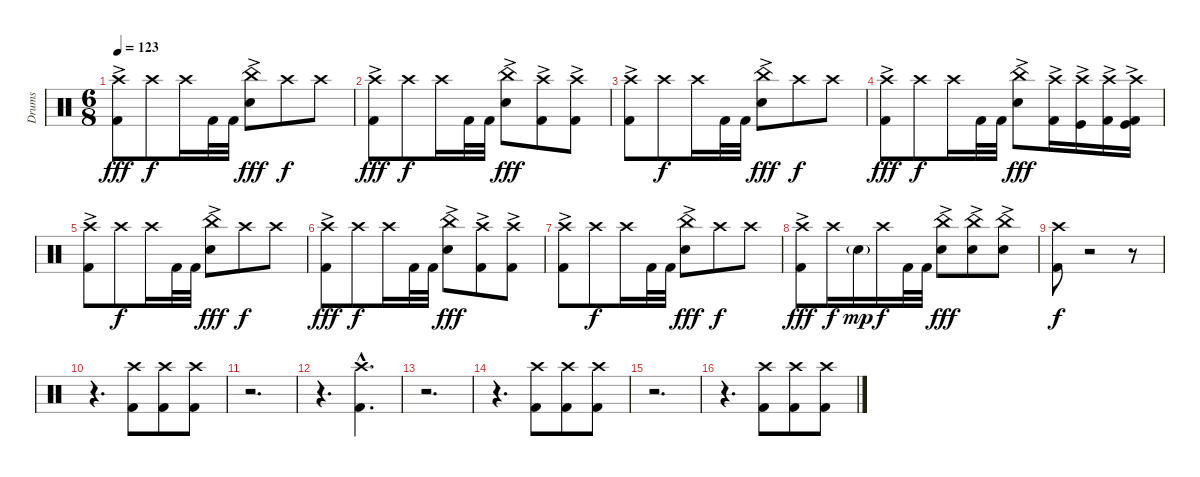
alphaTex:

\track ("Drums" "Drums") {instrument percussion}
\staff {score}
\articulation defaults
\ts (6 8)
\tempo 123
\clef neutral
\ks c
("Crash high (hit)"{ac} "Kick (hit) 2").8{dy fff} "Crash high (hit)".8{dy f} "Crash high (hit)".16 "Kick (hit) 2".32 "Kick (hit) 2".32 ("China (hit)"{ac} "Electric Snare (hit)").8{dy fff} "Crash high (hit)".8{dy f} "Crash high (hit)".8 |
("Crash high (hit)"{ac} "Kick (hit) 2").8{dy fff} "Crash high (hit)".8{dy f} "Crash high (hit)".16 "Kick (hit) 2".32 "Kick (hit) 2".32 ("China (hit)"{ac} "Electric Snare (hit)").8{dy fff} ("Crash high (hit)"{ac} "Kick (hit) 2").8 ("Crash high (hit)"{ac} "Kick (hit) 2").8 |
("Crash high (hit)"{ac} "Kick (hit) 2").8 "Crash high (hit)".8{dy f} "Crash high (hit)".16 "Kick (hit) 2".32 "Kick (hit) 2".32 ("China (hit)"{ac} "Electric Snare (hit)").8{dy fff} "Crash high (hit)".8{dy f} "Crash high (hit)".8 |
("Crash high (hit)"{ac} "Kick (hit) 2").8{dy fff} "Crash high (hit)".8{dy f} "Crash high (hit)".16 "Kick (hit) 2".32 "Kick (hit) 2".32 ("China (hit)"{ac} "Electric Snare (hit)").8{dy fff} ("Crash high (hit)"{ac} "Kick (hit) 2").16 ("Crash high (hit)"{ac} "Kick (hit)").16 ("Crash high (hit)"{ac} "Kick (hit) 2").16 ("Crash high (hit)"{ac} "Kick (hit) 2" "Kick (hit)").16 |
("Crash high (hit)"{ac} "Kick (hit) 2").8 "Crash high (hit)".8{dy f} "Crash high (hit)".16 "Kick (hit) 2".32 "Kick (hit) 2".32 ("China (hit)"{ac} "Electric Snare (hit)").8{dy fff} "Crash high (hit)".8{dy f} "Crash high (hit)".8 |
("Crash high (hit)"{ac} "Kick (hit) 2").8{dy fff} "Crash high (hit)".8{dy f} "Crash high (hit)".16 "Kick (hit) 2".32 "Kick (hit) 2".32 ("China (hit)"{ac} "Electric Snare (hit)").8{dy fff} ("Crash high (hit)"{ac} "Kick (hit) 2").8 ("Crash high (hit)"{ac} "Kick (hit) 2").8 |
("Crash high (hit)"{ac} "Kick (hit) 2").8 "Crash high (hit)".8{dy f} "Crash high (hit)".16 "Kick (hit) 2".32 "Kick (hit) 2".32 ("China (hit)"{ac} "Electric Snare (hit)").8{dy fff} "Crash high (hit)".8{dy f} "Crash high (hit)".8 |
("Crash high (hit)"{ac} "Kick (hit) 2").8{dy fff} "Crash high (hit)".16{dy f} "Electric Snare (hit)"{g}.16{dy mp} "Crash high (hit)".16{dy f} "Kick (hit) 2".32 "Kick (hit) 2".32 ("China (hit)"{ac} "Electric Snare (hit)").8{dy fff} ("China (hit)"{ac} "Electric Snare (hit)").8 ("China (hit)"{ac} "Electric Snare (hit)").8 |
("Crash high (hit)" "Kick (hit) 2").8{dy f} r.2 r.8 |
r.4{d} ("Crash high (hit)" "Kick (hit) 2").8 ("Crash high (hit)" "Kick (hit) 2").8 ("Crash high (hit)" "Kick (hit) 2").8 |
r.2{d} |
r.4{d} ("Crash high (hit)"{hac} "Kick (hit) 2"{hac}).4{d} |
r.2{d} |
r.4{d} ("Crash high (hit)" "Kick (hit) 2").8 ("Crash high (hit)" "Kick (hit) 2").8 ("Crash high (hit)" "Kick (hit) 2").8 |
r.2{d} |
r.4{d} ("Crash high (hit)" "Kick (hit) 2").8 ("Crash high (hit)" "Kick (hit) 2").8 ("Crash high (hit)" "Kick (hit) 2").8
